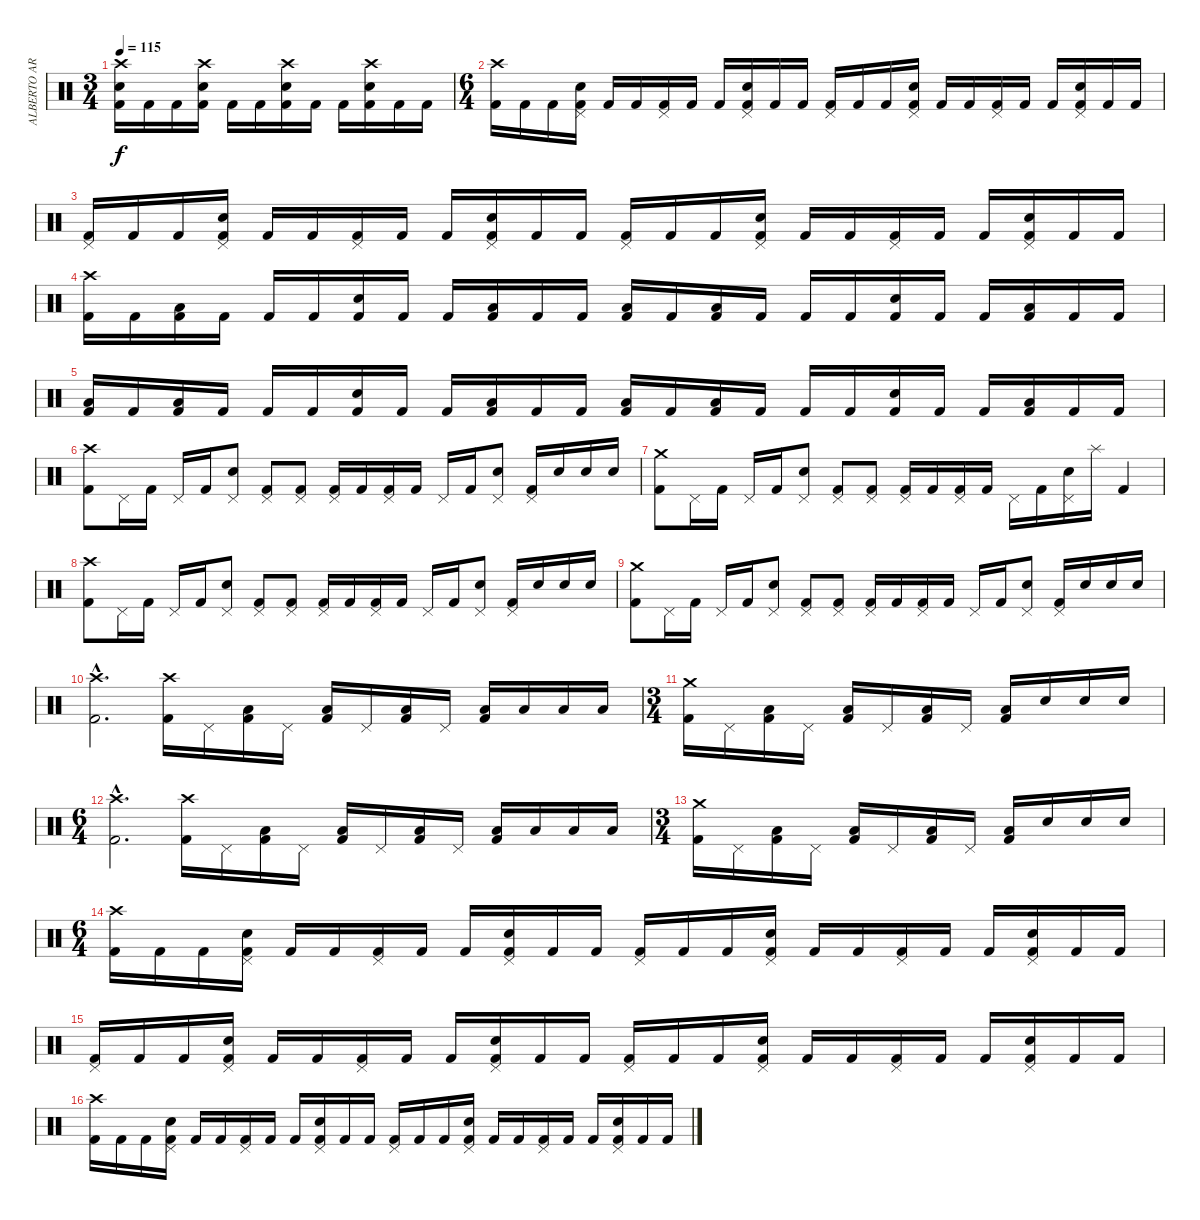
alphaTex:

\track ("ALBERTO ARDINES" "ALBERTO AR") {instrument percussion}
\staff {score}
\articulation defaults
\ts (3 4)
\tempo 115
\clef neutral
\ks c
("Crash high (hit)" "Electric Snare (hit)" "Kick (hit) 2").16{dy f} "Kick (hit) 2".16 "Kick (hit) 2".16 ("Crash high (hit)" "Electric Snare (hit)" "Kick (hit) 2").16 "Kick (hit) 2".16 "Kick (hit) 2".16 ("Crash high (hit)" "Electric Snare (hit)" "Kick (hit) 2").16 "Kick (hit) 2".16 "Kick (hit) 2".16 ("Crash high (hit)" "Electric Snare (hit)" "Kick (hit) 2").16 "Kick (hit) 2".16 "Kick (hit) 2".16 |
\ts (6 4)
("Crash high (hit)" "Kick (hit) 2").16 "Kick (hit) 2".16 "Kick (hit) 2".16 ("Pedal Hi-Hat (hit)" "Electric Snare (hit)" "Kick (hit) 2").16 "Kick (hit) 2".16 "Kick (hit) 2".16 ("Pedal Hi-Hat (hit)" "Kick (hit) 2").16 "Kick (hit) 2".16 "Kick (hit) 2".16 ("Pedal Hi-Hat (hit)" "Electric Snare (hit)" "Kick (hit) 2").16 "Kick (hit) 2".16 "Kick (hit) 2".16 ("Pedal Hi-Hat (hit)" "Kick (hit) 2").16 "Kick (hit) 2".16 "Kick (hit) 2".16 ("Pedal Hi-Hat (hit)" "Electric Snare (hit)" "Kick (hit) 2").16 "Kick (hit) 2".16 "Kick (hit) 2".16 ("Pedal Hi-Hat (hit)" "Kick (hit) 2").16 "Kick (hit) 2".16 "Kick (hit) 2".16 ("Pedal Hi-Hat (hit)" "Electric Snare (hit)" "Kick (hit) 2").16 "Kick (hit) 2".16 "Kick (hit) 2".16 |
("Pedal Hi-Hat (hit)" "Kick (hit) 2").16 "Kick (hit) 2".16 "Kick (hit) 2".16 ("Pedal Hi-Hat (hit)" "Electric Snare (hit)" "Kick (hit) 2").16 "Kick (hit) 2".16 "Kick (hit) 2".16 ("Pedal Hi-Hat (hit)" "Kick (hit) 2").16 "Kick (hit) 2".16 "Kick (hit) 2".16 ("Pedal Hi-Hat (hit)" "Electric Snare (hit)" "Kick (hit) 2").16 "Kick (hit) 2".16 "Kick (hit) 2".16 ("Pedal Hi-Hat (hit)" "Kick (hit) 2").16 "Kick (hit) 2".16 "Kick (hit) 2".16 ("Pedal Hi-Hat (hit)" "Electric Snare (hit)" "Kick (hit) 2").16 "Kick (hit) 2".16 "Kick (hit) 2".16 ("Pedal Hi-Hat (hit)" "Kick (hit) 2").16 "Kick (hit) 2".16 "Kick (hit) 2".16 ("Pedal Hi-Hat (hit)" "Electric Snare (hit)" "Kick (hit) 2").16 "Kick (hit) 2".16 "Kick (hit) 2".16 |
("Crash high (hit)" "Kick (hit) 2").16 "Kick (hit) 2".16 ("Low Tom (hit)" "Kick (hit) 2").16 "Kick (hit) 2".16 "Kick (hit) 2".16 "Kick (hit) 2".16 ("Electric Snare (hit)" "Kick (hit) 2").16 "Kick (hit) 2".16 "Kick (hit) 2".16 ("Low Tom (hit)" "Kick (hit) 2").16 "Kick (hit) 2".16 "Kick (hit) 2".16 ("Low Floor Tom (hit)" "Kick (hit) 2").16 "Kick (hit) 2".16 ("Low Tom (hit)" "Kick (hit) 2").16 "Kick (hit) 2".16 "Kick (hit) 2".16 "Kick (hit) 2".16 ("Electric Snare (hit)" "Kick (hit) 2").16 "Kick (hit) 2".16 "Kick (hit) 2".16 ("Low Tom (hit)" "Kick (hit) 2").16 "Kick (hit) 2".16 "Kick (hit) 2".16 |
("Low Floor Tom (hit)" "Kick (hit) 2").16 "Kick (hit) 2".16 ("Low Tom (hit)" "Kick (hit) 2").16 "Kick (hit) 2".16 "Kick (hit) 2".16 "Kick (hit) 2".16 ("Electric Snare (hit)" "Kick (hit) 2").16 "Kick (hit) 2".16 "Kick (hit) 2".16 ("Low Tom (hit)" "Kick (hit) 2").16 "Kick (hit) 2".16 "Kick (hit) 2".16 ("Low Floor Tom (hit)" "Kick (hit) 2").16 "Kick (hit) 2".16 ("Low Tom (hit)" "Kick (hit) 2").16 "Kick (hit) 2".16 "Kick (hit) 2".16 "Kick (hit) 2".16 ("Electric Snare (hit)" "Kick (hit) 2").16 "Kick (hit) 2".16 "Kick (hit) 2".16 ("Low Tom (hit)" "Kick (hit) 2").16 "Kick (hit) 2".16 "Kick (hit) 2".16 |
("Crash high (hit)" "Kick (hit) 2").8 "Pedal Hi-Hat (hit)".16 "Kick (hit) 2".16 "Pedal Hi-Hat (hit)".16 "Kick (hit) 2".16 ("Pedal Hi-Hat (hit)" "Electric Snare (hit)").8 ("Pedal Hi-Hat (hit)" "Kick (hit) 2").8 ("Pedal Hi-Hat (hit)" "Kick (hit) 2").8 ("Pedal Hi-Hat (hit)" "Kick (hit) 2").16 "Kick (hit) 2".16 ("Pedal Hi-Hat (hit)" "Kick (hit) 2").16 "Kick (hit) 2".16 "Pedal Hi-Hat (hit)".16 "Kick (hit) 2".16 ("Pedal Hi-Hat (hit)" "Electric Snare (hit)").8 ("Pedal Hi-Hat (hit)" "Kick (hit) 2").16 "Electric Snare (hit)".16 "Electric Snare (hit)".16 "Electric Snare (hit)".16 |
("Crash medium (hit)" "Kick (hit) 2").8 "Pedal Hi-Hat (hit)".16 "Kick (hit) 2".16 "Pedal Hi-Hat (hit)".16 "Kick (hit) 2".16 ("Pedal Hi-Hat (hit)" "Electric Snare (hit)").8 ("Pedal Hi-Hat (hit)" "Kick (hit) 2").8 ("Pedal Hi-Hat (hit)" "Kick (hit) 2").8 ("Pedal Hi-Hat (hit)" "Kick (hit) 2").16 "Kick (hit) 2".16 ("Pedal Hi-Hat (hit)" "Kick (hit) 2").16 "Kick (hit) 2".16 "Pedal Hi-Hat (hit)".16 "Kick (hit) 2".16 ("Pedal Hi-Hat (hit)" "Electric Snare (hit)").16 "Splash (hit)".16 "Kick (hit) 2".4 |
("Crash high (hit)" "Kick (hit) 2").8 "Pedal Hi-Hat (hit)".16 "Kick (hit) 2".16 "Pedal Hi-Hat (hit)".16 "Kick (hit) 2".16 ("Pedal Hi-Hat (hit)" "Electric Snare (hit)").8 ("Pedal Hi-Hat (hit)" "Kick (hit) 2").8 ("Pedal Hi-Hat (hit)" "Kick (hit) 2").8 ("Pedal Hi-Hat (hit)" "Kick (hit) 2").16 "Kick (hit) 2".16 ("Pedal Hi-Hat (hit)" "Kick (hit) 2").16 "Kick (hit) 2".16 "Pedal Hi-Hat (hit)".16 "Kick (hit) 2".16 ("Pedal Hi-Hat (hit)" "Electric Snare (hit)").8 ("Pedal Hi-Hat (hit)" "Kick (hit) 2").16 "Electric Snare (hit)".16 "Electric Snare (hit)".16 "Electric Snare (hit)".16 |
("Crash medium (hit)" "Kick (hit) 2").8 "Pedal Hi-Hat (hit)".16 "Kick (hit) 2".16 "Pedal Hi-Hat (hit)".16 "Kick (hit) 2".16 ("Pedal Hi-Hat (hit)" "Electric Snare (hit)").8 ("Pedal Hi-Hat (hit)" "Kick (hit) 2").8 ("Pedal Hi-Hat (hit)" "Kick (hit) 2").8 ("Pedal Hi-Hat (hit)" "Kick (hit) 2").16 "Kick (hit) 2".16 ("Pedal Hi-Hat (hit)" "Kick (hit) 2").16 "Kick (hit) 2".16 "Pedal Hi-Hat (hit)".16 "Kick (hit) 2".16 ("Pedal Hi-Hat (hit)" "Electric Snare (hit)").8 ("Pedal Hi-Hat (hit)" "Kick (hit) 2").16 "Electric Snare (hit)".16 "Electric Snare (hit)".16 "Electric Snare (hit)".16 |
("Crash high (hit)"{hac} "Kick (hit) 2"{hac}).2{d} ("Crash high (hit)" "Kick (hit) 2").16 "Pedal Hi-Hat (hit)".16 ("Low Tom (hit)" "Kick (hit) 2").16 "Pedal Hi-Hat (hit)".16 ("Low Tom (hit)" "Kick (hit) 2").16 "Pedal Hi-Hat (hit)".16 ("Low Floor Tom (hit)" "Kick (hit) 2").16 "Pedal Hi-Hat (hit)".16 ("Low Floor Tom (hit)" "Kick (hit) 2").16 "Low Tom (hit)".16 "Low Tom (hit)".16 "Low Tom (hit)".16 |
\ts (3 4)
("Crash medium (hit)" "Kick (hit) 2").16 "Pedal Hi-Hat (hit)".16 ("Low Tom (hit)" "Kick (hit) 2").16 "Pedal Hi-Hat (hit)".16 ("Low Tom (hit)" "Kick (hit) 2").16 "Pedal Hi-Hat (hit)".16 ("Low Floor Tom (hit)" "Kick (hit) 2").16 "Pedal Hi-Hat (hit)".16 ("Low Floor Tom (hit)" "Kick (hit) 2").16 "Electric Snare (hit)".16 "Electric Snare (hit)".16 "Electric Snare (hit)".16 |
\ts (6 4)
("Crash high (hit)"{hac} "Kick (hit) 2"{hac}).2{d} ("Crash high (hit)" "Kick (hit) 2").16 "Pedal Hi-Hat (hit)".16 ("Low Tom (hit)" "Kick (hit) 2").16 "Pedal Hi-Hat (hit)".16 ("Low Tom (hit)" "Kick (hit) 2").16 "Pedal Hi-Hat (hit)".16 ("Low Floor Tom (hit)" "Kick (hit) 2").16 "Pedal Hi-Hat (hit)".16 ("Low Floor Tom (hit)" "Kick (hit) 2").16 "Low Tom (hit)".16 "Low Tom (hit)".16 "Low Tom (hit)".16 |
\ts (3 4)
("Crash medium (hit)" "Kick (hit) 2").16 "Pedal Hi-Hat (hit)".16 ("Low Tom (hit)" "Kick (hit) 2").16 "Pedal Hi-Hat (hit)".16 ("Low Tom (hit)" "Kick (hit) 2").16 "Pedal Hi-Hat (hit)".16 ("Low Floor Tom (hit)" "Kick (hit) 2").16 "Pedal Hi-Hat (hit)".16 ("Low Floor Tom (hit)" "Kick (hit) 2").16 "Electric Snare (hit)".16 "Electric Snare (hit)".16 "Electric Snare (hit)".16 |
\ts (6 4)
("Crash high (hit)" "Kick (hit) 2").16 "Kick (hit) 2".16 "Kick (hit) 2".16 ("Pedal Hi-Hat (hit)" "Electric Snare (hit)" "Kick (hit) 2").16 "Kick (hit) 2".16 "Kick (hit) 2".16 ("Pedal Hi-Hat (hit)" "Kick (hit) 2").16 "Kick (hit) 2".16 "Kick (hit) 2".16 ("Pedal Hi-Hat (hit)" "Electric Snare (hit)" "Kick (hit) 2").16 "Kick (hit) 2".16 "Kick (hit) 2".16 ("Pedal Hi-Hat (hit)" "Kick (hit) 2").16 "Kick (hit) 2".16 "Kick (hit) 2".16 ("Pedal Hi-Hat (hit)" "Electric Snare (hit)" "Kick (hit) 2").16 "Kick (hit) 2".16 "Kick (hit) 2".16 ("Pedal Hi-Hat (hit)" "Kick (hit) 2").16 "Kick (hit) 2".16 "Kick (hit) 2".16 ("Pedal Hi-Hat (hit)" "Electric Snare (hit)" "Kick (hit) 2").16 "Kick (hit) 2".16 "Kick (hit) 2".16 |
("Pedal Hi-Hat (hit)" "Kick (hit) 2").16 "Kick (hit) 2".16 "Kick (hit) 2".16 ("Pedal Hi-Hat (hit)" "Electric Snare (hit)" "Kick (hit) 2").16 "Kick (hit) 2".16 "Kick (hit) 2".16 ("Pedal Hi-Hat (hit)" "Kick (hit) 2").16 "Kick (hit) 2".16 "Kick (hit) 2".16 ("Pedal Hi-Hat (hit)" "Electric Snare (hit)" "Kick (hit) 2").16 "Kick (hit) 2".16 "Kick (hit) 2".16 ("Pedal Hi-Hat (hit)" "Kick (hit) 2").16 "Kick (hit) 2".16 "Kick (hit) 2".16 ("Pedal Hi-Hat (hit)" "Electric Snare (hit)" "Kick (hit) 2").16 "Kick (hit) 2".16 "Kick (hit) 2".16 ("Pedal Hi-Hat (hit)" "Kick (hit) 2").16 "Kick (hit) 2".16 "Kick (hit) 2".16 ("Pedal Hi-Hat (hit)" "Electric Snare (hit)" "Kick (hit) 2").16 "Kick (hit) 2".16 "Kick (hit) 2".16 |
("Crash high (hit)" "Kick (hit) 2").16 "Kick (hit) 2".16 "Kick (hit) 2".16 ("Pedal Hi-Hat (hit)" "Electric Snare (hit)" "Kick (hit) 2").16 "Kick (hit) 2".16 "Kick (hit) 2".16 ("Pedal Hi-Hat (hit)" "Kick (hit) 2").16 "Kick (hit) 2".16 "Kick (hit) 2".16 ("Pedal Hi-Hat (hit)" "Electric Snare (hit)" "Kick (hit) 2").16 "Kick (hit) 2".16 "Kick (hit) 2".16 ("Pedal Hi-Hat (hit)" "Kick (hit) 2").16 "Kick (hit) 2".16 "Kick (hit) 2".16 ("Pedal Hi-Hat (hit)" "Electric Snare (hit)" "Kick (hit) 2").16 "Kick (hit) 2".16 "Kick (hit) 2".16 ("Pedal Hi-Hat (hit)" "Kick (hit) 2").16 "Kick (hit) 2".16 "Kick (hit) 2".16 ("Pedal Hi-Hat (hit)" "Electric Snare (hit)" "Kick (hit) 2").16 "Kick (hit) 2".16 "Kick (hit) 2".16
